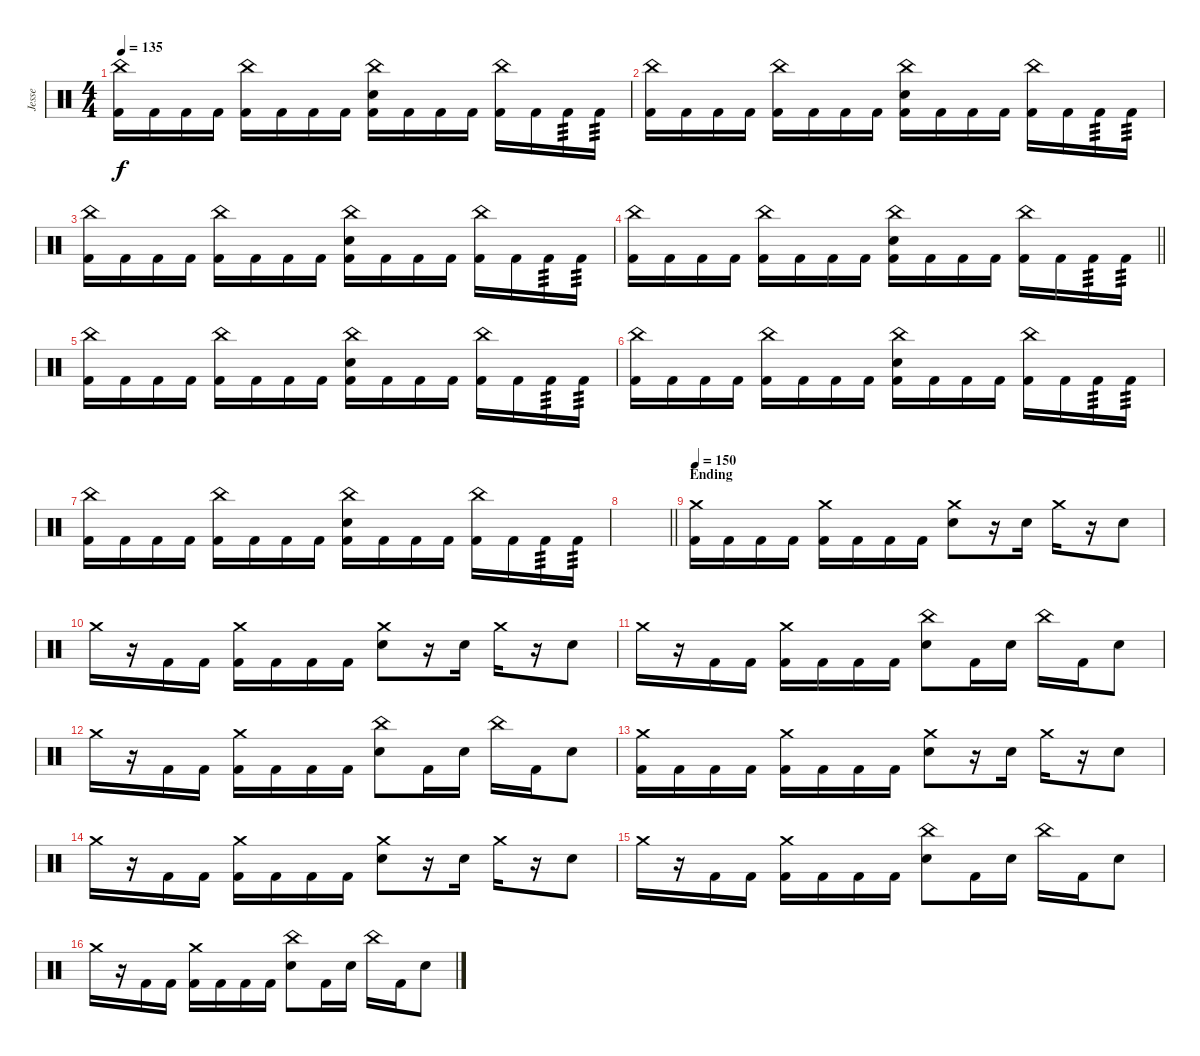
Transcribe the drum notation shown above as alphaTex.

\track ("Jesse" "Jesse") {instrument percussion}
\staff {score}
\articulation defaults
\ts (4 4)
\tempo 135
\clef neutral
\ks c
("China (hit)" "Kick (hit) 2").16{dy f} "Kick (hit) 2".16 "Kick (hit) 2".16 "Kick (hit) 2".16 ("China (hit)" "Kick (hit) 2").16 "Kick (hit) 2".16 "Kick (hit) 2".16 "Kick (hit) 2".16 ("China (hit)" "Electric Snare (hit)" "Kick (hit) 2").16 "Kick (hit) 2".16 "Kick (hit) 2".16 "Kick (hit) 2".16 ("China (hit)" "Kick (hit) 2").16 "Kick (hit) 2".16 "Kick (hit) 2".16{tp 3} "Kick (hit) 2".16{tp 3} |
("China (hit)" "Kick (hit) 2").16 "Kick (hit) 2".16 "Kick (hit) 2".16 "Kick (hit) 2".16 ("China (hit)" "Kick (hit) 2").16 "Kick (hit) 2".16 "Kick (hit) 2".16 "Kick (hit) 2".16 ("China (hit)" "Electric Snare (hit)" "Kick (hit) 2").16 "Kick (hit) 2".16 "Kick (hit) 2".16 "Kick (hit) 2".16 ("China (hit)" "Kick (hit) 2").16 "Kick (hit) 2".16 "Kick (hit) 2".16{tp 3} "Kick (hit) 2".16{tp 3} |
("China (hit)" "Kick (hit) 2").16 "Kick (hit) 2".16 "Kick (hit) 2".16 "Kick (hit) 2".16 ("China (hit)" "Kick (hit) 2").16 "Kick (hit) 2".16 "Kick (hit) 2".16 "Kick (hit) 2".16 ("China (hit)" "Electric Snare (hit)" "Kick (hit) 2").16 "Kick (hit) 2".16 "Kick (hit) 2".16 "Kick (hit) 2".16 ("China (hit)" "Kick (hit) 2").16 "Kick (hit) 2".16 "Kick (hit) 2".16{tp 3} "Kick (hit) 2".16{tp 3} |
\barLineRight lightlight
("China (hit)" "Kick (hit) 2").16 "Kick (hit) 2".16 "Kick (hit) 2".16 "Kick (hit) 2".16 ("China (hit)" "Kick (hit) 2").16 "Kick (hit) 2".16 "Kick (hit) 2".16 "Kick (hit) 2".16 ("China (hit)" "Electric Snare (hit)" "Kick (hit) 2").16 "Kick (hit) 2".16 "Kick (hit) 2".16 "Kick (hit) 2".16 ("China (hit)" "Kick (hit) 2").16 "Kick (hit) 2".16 "Kick (hit) 2".16{tp 3} "Kick (hit) 2".16{tp 3} |
("China (hit)" "Kick (hit) 2").16 "Kick (hit) 2".16 "Kick (hit) 2".16 "Kick (hit) 2".16 ("China (hit)" "Kick (hit) 2").16 "Kick (hit) 2".16 "Kick (hit) 2".16 "Kick (hit) 2".16 ("China (hit)" "Electric Snare (hit)" "Kick (hit) 2").16 "Kick (hit) 2".16 "Kick (hit) 2".16 "Kick (hit) 2".16 ("China (hit)" "Kick (hit) 2").16 "Kick (hit) 2".16 "Kick (hit) 2".16{tp 3} "Kick (hit) 2".16{tp 3} |
("China (hit)" "Kick (hit) 2").16 "Kick (hit) 2".16 "Kick (hit) 2".16 "Kick (hit) 2".16 ("China (hit)" "Kick (hit) 2").16 "Kick (hit) 2".16 "Kick (hit) 2".16 "Kick (hit) 2".16 ("China (hit)" "Electric Snare (hit)" "Kick (hit) 2").16 "Kick (hit) 2".16 "Kick (hit) 2".16 "Kick (hit) 2".16 ("China (hit)" "Kick (hit) 2").16 "Kick (hit) 2".16 "Kick (hit) 2".16{tp 3} "Kick (hit) 2".16{tp 3} |
("China (hit)" "Kick (hit) 2").16 "Kick (hit) 2".16 "Kick (hit) 2".16 "Kick (hit) 2".16 ("China (hit)" "Kick (hit) 2").16 "Kick (hit) 2".16 "Kick (hit) 2".16 "Kick (hit) 2".16 ("China (hit)" "Electric Snare (hit)" "Kick (hit) 2").16 "Kick (hit) 2".16 "Kick (hit) 2".16 "Kick (hit) 2".16 ("China (hit)" "Kick (hit) 2").16 "Kick (hit) 2".16 "Kick (hit) 2".16{tp 3} "Kick (hit) 2".16{tp 3} |
\barLineRight lightlight
|
\section ("" "Ending")
\tempo 150
("Crash medium (hit)" "Kick (hit) 2").16 "Kick (hit) 2".16 "Kick (hit) 2".16 "Kick (hit) 2".16 ("Crash medium (hit)" "Kick (hit) 2").16 "Kick (hit) 2".16 "Kick (hit) 2".16 "Kick (hit) 2".16 ("Crash medium (hit)" "Electric Snare (hit)").8 r.16 "Electric Snare (hit)".16 "Crash medium (hit)".16 r.16 "Electric Snare (hit)".8 |
"Crash medium (hit)".16 r.16 "Kick (hit) 2".16 "Kick (hit) 2".16 ("Crash medium (hit)" "Kick (hit) 2").16 "Kick (hit) 2".16 "Kick (hit) 2".16 "Kick (hit) 2".16 ("Crash medium (hit)" "Electric Snare (hit)").8 r.16 "Electric Snare (hit)".16 "Crash medium (hit)".16 r.16 "Electric Snare (hit)".8 |
"Crash medium (hit)".16 r.16 "Kick (hit) 2".16 "Kick (hit) 2".16 ("Crash medium (hit)" "Kick (hit) 2").16 "Kick (hit) 2".16 "Kick (hit) 2".16 "Kick (hit) 2".16 ("China (hit)" "Electric Snare (hit)").8 "Kick (hit) 2".16 "Electric Snare (hit)".16 "China (hit)".16 "Kick (hit) 2".16 "Electric Snare (hit)".8 |
"Crash medium (hit)".16 r.16 "Kick (hit) 2".16 "Kick (hit) 2".16 ("Crash medium (hit)" "Kick (hit) 2").16 "Kick (hit) 2".16 "Kick (hit) 2".16 "Kick (hit) 2".16 ("China (hit)" "Electric Snare (hit)").8 "Kick (hit) 2".16 "Electric Snare (hit)".16 "China (hit)".16 "Kick (hit) 2".16 "Electric Snare (hit)".8 |
("Crash medium (hit)" "Kick (hit) 2").16 "Kick (hit) 2".16 "Kick (hit) 2".16 "Kick (hit) 2".16 ("Crash medium (hit)" "Kick (hit) 2").16 "Kick (hit) 2".16 "Kick (hit) 2".16 "Kick (hit) 2".16 ("Crash medium (hit)" "Electric Snare (hit)").8 r.16 "Electric Snare (hit)".16 "Crash medium (hit)".16 r.16 "Electric Snare (hit)".8 |
"Crash medium (hit)".16 r.16 "Kick (hit) 2".16 "Kick (hit) 2".16 ("Crash medium (hit)" "Kick (hit) 2").16 "Kick (hit) 2".16 "Kick (hit) 2".16 "Kick (hit) 2".16 ("Crash medium (hit)" "Electric Snare (hit)").8 r.16 "Electric Snare (hit)".16 "Crash medium (hit)".16 r.16 "Electric Snare (hit)".8 |
"Crash medium (hit)".16 r.16 "Kick (hit) 2".16 "Kick (hit) 2".16 ("Crash medium (hit)" "Kick (hit) 2").16 "Kick (hit) 2".16 "Kick (hit) 2".16 "Kick (hit) 2".16 ("China (hit)" "Electric Snare (hit)").8 "Kick (hit) 2".16 "Electric Snare (hit)".16 "China (hit)".16 "Kick (hit) 2".16 "Electric Snare (hit)".8 |
"Crash medium (hit)".16 r.16 "Kick (hit) 2".16 "Kick (hit) 2".16 ("Crash medium (hit)" "Kick (hit) 2").16 "Kick (hit) 2".16 "Kick (hit) 2".16 "Kick (hit) 2".16 ("China (hit)" "Electric Snare (hit)").8 "Kick (hit) 2".16 "Electric Snare (hit)".16 "China (hit)".16 "Kick (hit) 2".16 "Electric Snare (hit)".8
